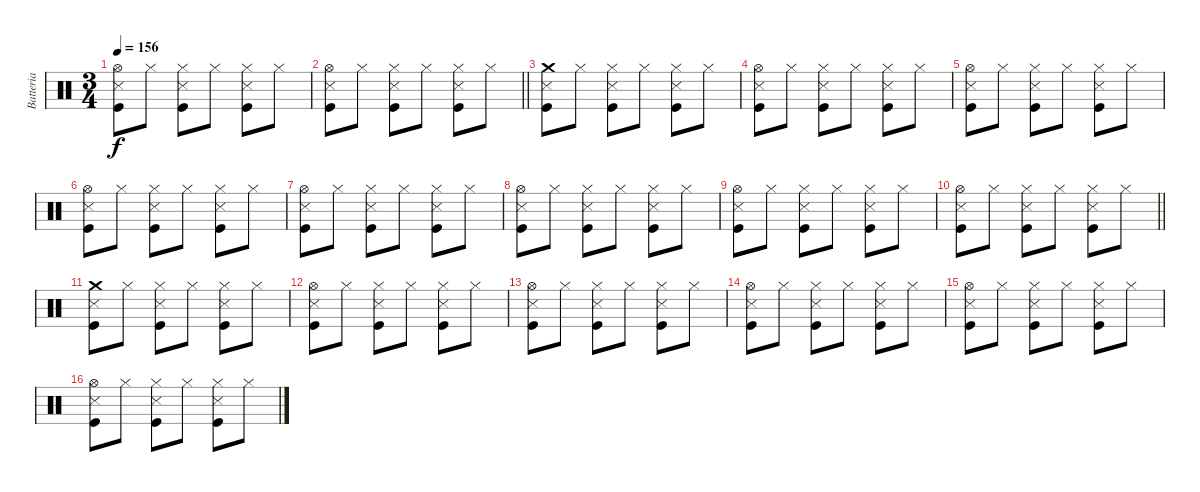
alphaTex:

\track ("Batteria" "Batteria") {instrument percussion}
\staff {score}
\articulation defaults
\ts (3 4)
\tempo 156
\clef neutral
\ks c
("Hi-Hat (open)" "Kick (hit)" "Snare (side stick) 3").8{dy f} "Hi-Hat (closed)".8 ("Hi-Hat (closed)" "Kick (hit)" "Snare (side stick) 3").8 "Hi-Hat (closed)".8 ("Hi-Hat (closed)" "Kick (hit)" "Snare (side stick) 3").8 "Hi-Hat (closed)".8 |
\barLineRight lightlight
("Hi-Hat (open)" "Kick (hit)" "Snare (side stick) 3").8 "Hi-Hat (closed)".8 ("Hi-Hat (closed)" "Kick (hit)" "Snare (side stick) 3").8 "Hi-Hat (closed)".8 ("Hi-Hat (closed)" "Kick (hit)" "Snare (side stick) 3").8 "Hi-Hat (closed)".8 |
\section ("" "")
("Crash medium (hit)" "Kick (hit)" "Snare (side stick) 3").8 "Hi-Hat (closed)".8 ("Hi-Hat (closed)" "Kick (hit)" "Snare (side stick) 3").8 "Hi-Hat (closed)".8 ("Hi-Hat (closed)" "Kick (hit)" "Snare (side stick) 3").8 "Hi-Hat (closed)".8 |
("Hi-Hat (open)" "Kick (hit)" "Snare (side stick) 3").8 "Hi-Hat (closed)".8 ("Hi-Hat (closed)" "Kick (hit)" "Snare (side stick) 3").8 "Hi-Hat (closed)".8 ("Hi-Hat (closed)" "Kick (hit)" "Snare (side stick) 3").8 "Hi-Hat (closed)".8 |
("Hi-Hat (open)" "Kick (hit)" "Snare (side stick) 3").8 "Hi-Hat (closed)".8 ("Hi-Hat (closed)" "Kick (hit)" "Snare (side stick) 3").8 "Hi-Hat (closed)".8 ("Hi-Hat (closed)" "Kick (hit)" "Snare (side stick) 3").8 "Hi-Hat (closed)".8 |
("Hi-Hat (open)" "Kick (hit)" "Snare (side stick) 3").8 "Hi-Hat (closed)".8 ("Hi-Hat (closed)" "Kick (hit)" "Snare (side stick) 3").8 "Hi-Hat (closed)".8 ("Hi-Hat (closed)" "Kick (hit)" "Snare (side stick) 3").8 "Hi-Hat (closed)".8 |
("Hi-Hat (open)" "Kick (hit)" "Snare (side stick) 3").8 "Hi-Hat (closed)".8 ("Hi-Hat (closed)" "Kick (hit)" "Snare (side stick) 3").8 "Hi-Hat (closed)".8 ("Hi-Hat (closed)" "Kick (hit)" "Snare (side stick) 3").8 "Hi-Hat (closed)".8 |
("Hi-Hat (open)" "Kick (hit)" "Snare (side stick) 3").8 "Hi-Hat (closed)".8 ("Hi-Hat (closed)" "Kick (hit)" "Snare (side stick) 3").8 "Hi-Hat (closed)".8 ("Hi-Hat (closed)" "Kick (hit)" "Snare (side stick) 3").8 "Hi-Hat (closed)".8 |
("Hi-Hat (open)" "Kick (hit)" "Snare (side stick) 3").8 "Hi-Hat (closed)".8 ("Hi-Hat (closed)" "Kick (hit)" "Snare (side stick) 3").8 "Hi-Hat (closed)".8 ("Hi-Hat (closed)" "Kick (hit)" "Snare (side stick) 3").8 "Hi-Hat (closed)".8 |
\barLineRight lightlight
("Hi-Hat (open)" "Kick (hit)" "Snare (side stick) 3").8 "Hi-Hat (closed)".8 ("Hi-Hat (closed)" "Kick (hit)" "Snare (side stick) 3").8 "Hi-Hat (closed)".8 ("Hi-Hat (closed)" "Kick (hit)" "Snare (side stick) 3").8 "Hi-Hat (closed)".8 |
("Crash medium (hit)" "Kick (hit)" "Snare (side stick) 3").8 "Hi-Hat (closed)".8 ("Hi-Hat (closed)" "Kick (hit)" "Snare (side stick) 3").8 "Hi-Hat (closed)".8 ("Hi-Hat (closed)" "Kick (hit)" "Snare (side stick) 3").8 "Hi-Hat (closed)".8 |
("Hi-Hat (open)" "Kick (hit)" "Snare (side stick) 3").8 "Hi-Hat (closed)".8 ("Hi-Hat (closed)" "Kick (hit)" "Snare (side stick) 3").8 "Hi-Hat (closed)".8 ("Hi-Hat (closed)" "Kick (hit)" "Snare (side stick) 3").8 "Hi-Hat (closed)".8 |
("Hi-Hat (open)" "Kick (hit)" "Snare (side stick) 3").8 "Hi-Hat (closed)".8 ("Hi-Hat (closed)" "Kick (hit)" "Snare (side stick) 3").8 "Hi-Hat (closed)".8 ("Hi-Hat (closed)" "Kick (hit)" "Snare (side stick) 3").8 "Hi-Hat (closed)".8 |
("Hi-Hat (open)" "Kick (hit)" "Snare (side stick) 3").8 "Hi-Hat (closed)".8 ("Hi-Hat (closed)" "Kick (hit)" "Snare (side stick) 3").8 "Hi-Hat (closed)".8 ("Hi-Hat (closed)" "Kick (hit)" "Snare (side stick) 3").8 "Hi-Hat (closed)".8 |
("Hi-Hat (open)" "Kick (hit)" "Snare (side stick) 3").8 "Hi-Hat (closed)".8 ("Hi-Hat (closed)" "Kick (hit)" "Snare (side stick) 3").8 "Hi-Hat (closed)".8 ("Hi-Hat (closed)" "Kick (hit)" "Snare (side stick) 3").8 "Hi-Hat (closed)".8 |
("Hi-Hat (open)" "Kick (hit)" "Snare (side stick) 3").8 "Hi-Hat (closed)".8 ("Hi-Hat (closed)" "Kick (hit)" "Snare (side stick) 3").8 "Hi-Hat (closed)".8 ("Hi-Hat (closed)" "Kick (hit)" "Snare (side stick) 3").8 "Hi-Hat (closed)".8
